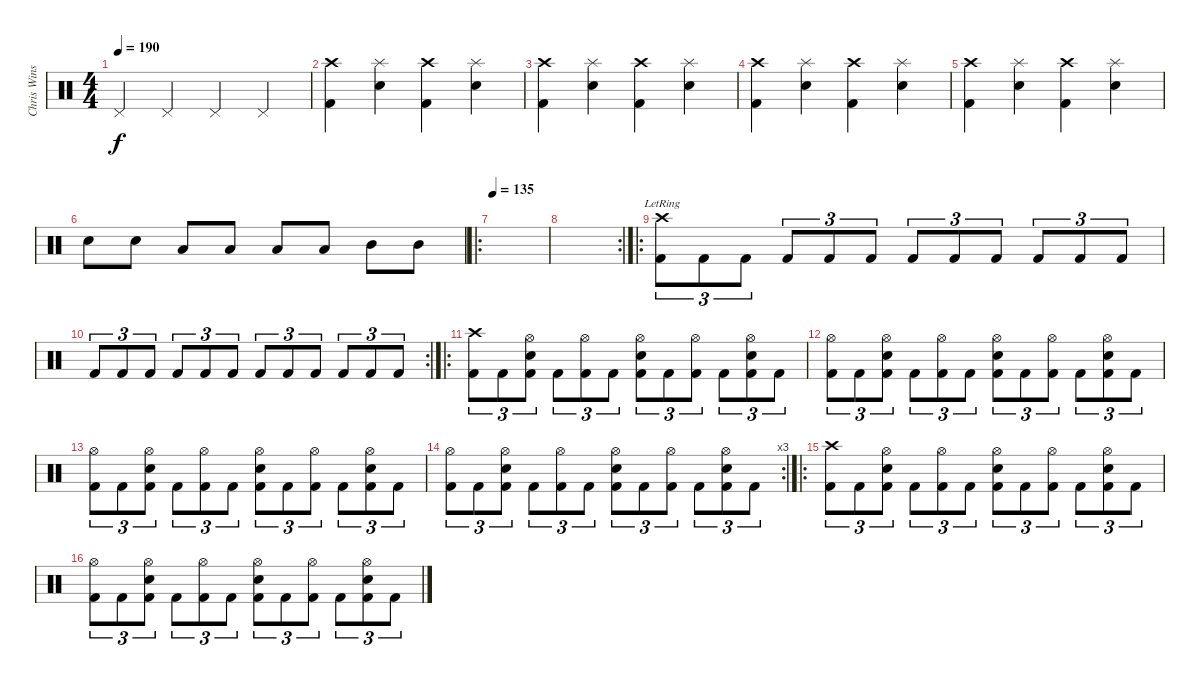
\track ("Chris Winship (Drums)" "Chris Wins") {instrument percussion}
\staff {score}
\articulation defaults
\ts (4 4)
\tempo 190
\clef neutral
\ks c "Pedal Hi-Hat (hit)".4{dy f} "Pedal Hi-Hat (hit)".4 "Pedal Hi-Hat (hit)".4 "Pedal Hi-Hat (hit)".4
|
("Crash high (hit)" "Kick (hit) 2").4 ("Splash (hit)" "Electric Snare (hit)").4 ("Crash high (hit)" "Kick (hit) 2").4 ("Splash (hit)" "Electric Snare (hit)").4 |
("Crash high (hit)" "Kick (hit) 2").4 ("Splash (hit)" "Electric Snare (hit)").4 ("Crash high (hit)" "Kick (hit) 2").4 ("Splash (hit)" "Electric Snare (hit)").4 |
("Crash high (hit)" "Kick (hit) 2").4 ("Splash (hit)" "Electric Snare (hit)").4 ("Crash high (hit)" "Kick (hit) 2").4 ("Splash (hit)" "Electric Snare (hit)").4 |
("Crash high (hit)" "Kick (hit) 2").4 ("Splash (hit)" "Electric Snare (hit)").4 ("Crash high (hit)" "Kick (hit) 2").4 ("Splash (hit)" "Electric Snare (hit)").4 |
"Electric Snare (hit)".8 "Electric Snare (hit)".8 "Low Tom (hit)".8 "Low Tom (hit)".8 "Low Floor Tom (hit)".8 "Low Floor Tom (hit)".8 "Mid Tom (hit)".8 "Mid Tom (hit)".8 |
\ro
\tempo 135
|
\rc 2
|
\ro
("Crash high (hit)"{lr} "Kick (hit) 2").8{tu (3 2)} "Kick (hit) 2".8{tu (3 2)} "Kick (hit) 2".8{tu (3 2)} "Kick (hit) 2".8{tu (3 2)} "Kick (hit) 2".8{tu (3 2)} "Kick (hit) 2".8{tu (3 2)} "Kick (hit) 2".8{tu (3 2)} "Kick (hit) 2".8{tu (3 2)} "Kick (hit) 2".8{tu (3 2)} "Kick (hit) 2".8{tu (3 2)} "Kick (hit) 2".8{tu (3 2)} "Kick (hit) 2".8{tu (3 2)} |
\rc 2 "Kick (hit) 2".8{tu (3 2)} "Kick (hit) 2".8{tu (3 2)} "Kick (hit) 2".8{tu (3 2)} "Kick (hit) 2".8{tu (3 2)} "Kick (hit) 2".8{tu (3 2)} "Kick (hit) 2".8{tu (3 2)} "Kick (hit) 2".8{tu (3 2)} "Kick (hit) 2".8{tu (3 2)} "Kick (hit) 2".8{tu (3 2)} "Kick (hit) 2".8{tu (3 2)} "Kick (hit) 2".8{tu (3 2)} "Kick (hit) 2".8{tu (3 2)}
|
\ro
("Crash high (hit)" "Kick (hit) 2").8{tu (3 2)} "Kick (hit) 2".8{tu (3 2)} ("Hi-Hat (open)" "Electric Snare (hit)" "Kick (hit) 2").8{tu (3 2)} "Kick (hit) 2".8{tu (3 2)} ("Hi-Hat (open)" "Kick (hit) 2").8{tu (3 2)} "Kick (hit) 2".8{tu (3 2)} ("Hi-Hat (open)" "Electric Snare (hit)" "Kick (hit) 2").8{tu (3 2)} "Kick (hit) 2".8{tu (3 2)} ("Hi-Hat (open)" "Kick (hit) 2").8{tu (3 2)} "Kick (hit) 2".8{tu (3 2)} ("Hi-Hat (open)" "Electric Snare (hit)" "Kick (hit) 2").8{tu (3 2)} "Kick (hit) 2".8{tu (3 2)} |
("Hi-Hat (open)" "Kick (hit) 2").8{tu (3 2)} "Kick (hit) 2".8{tu (3 2)} ("Hi-Hat (open)" "Electric Snare (hit)" "Kick (hit) 2").8{tu (3 2)} "Kick (hit) 2".8{tu (3 2)} ("Hi-Hat (open)" "Kick (hit) 2").8{tu (3 2)} "Kick (hit) 2".8{tu (3 2)} ("Hi-Hat (open)" "Electric Snare (hit)" "Kick (hit) 2").8{tu (3 2)} "Kick (hit) 2".8{tu (3 2)} ("Hi-Hat (open)" "Kick (hit) 2").8{tu (3 2)} "Kick (hit) 2".8{tu (3 2)} ("Hi-Hat (open)" "Electric Snare (hit)" "Kick (hit) 2").8{tu (3 2)} "Kick (hit) 2".8{tu (3 2)} |
("Hi-Hat (open)" "Kick (hit) 2").8{tu (3 2)} "Kick (hit) 2".8{tu (3 2)} ("Hi-Hat (open)" "Electric Snare (hit)" "Kick (hit) 2").8{tu (3 2)} "Kick (hit) 2".8{tu (3 2)} ("Hi-Hat (open)" "Kick (hit) 2").8{tu (3 2)} "Kick (hit) 2".8{tu (3 2)} ("Hi-Hat (open)" "Electric Snare (hit)" "Kick (hit) 2").8{tu (3 2)} "Kick (hit) 2".8{tu (3 2)} ("Hi-Hat (open)" "Kick (hit) 2").8{tu (3 2)} "Kick (hit) 2".8{tu (3 2)} ("Hi-Hat (open)" "Electric Snare (hit)" "Kick (hit) 2").8{tu (3 2)} "Kick (hit) 2".8{tu (3 2)} |
\rc 3
("Hi-Hat (open)" "Kick (hit) 2").8{tu (3 2)} "Kick (hit) 2".8{tu (3 2)} ("Hi-Hat (open)" "Electric Snare (hit)" "Kick (hit) 2").8{tu (3 2)} "Kick (hit) 2".8{tu (3 2)} ("Hi-Hat (open)" "Kick (hit) 2").8{tu (3 2)} "Kick (hit) 2".8{tu (3 2)} ("Hi-Hat (open)" "Electric Snare (hit)" "Kick (hit) 2").8{tu (3 2)} "Kick (hit) 2".8{tu (3 2)} ("Hi-Hat (open)" "Kick (hit) 2").8{tu (3 2)} "Kick (hit) 2".8{tu (3 2)} ("Hi-Hat (open)" "Electric Snare (hit)" "Kick (hit) 2").8{tu (3 2)} "Kick (hit) 2".8{tu (3 2)} |
\ro
("Crash high (hit)" "Kick (hit) 2").8{tu (3 2)} "Kick (hit) 2".8{tu (3 2)} ("Hi-Hat (open)" "Electric Snare (hit)" "Kick (hit) 2").8{tu (3 2)} "Kick (hit) 2".8{tu (3 2)} ("Hi-Hat (open)" "Kick (hit) 2").8{tu (3 2)} "Kick (hit) 2".8{tu (3 2)} ("Hi-Hat (open)" "Electric Snare (hit)" "Kick (hit) 2").8{tu (3 2)} "Kick (hit) 2".8{tu (3 2)} ("Hi-Hat (open)" "Kick (hit) 2").8{tu (3 2)} "Kick (hit) 2".8{tu (3 2)} ("Hi-Hat (open)" "Electric Snare (hit)" "Kick (hit) 2").8{tu (3 2)} "Kick (hit) 2".8{tu (3 2)} |
("Hi-Hat (open)" "Kick (hit) 2").8{tu (3 2)} "Kick (hit) 2".8{tu (3 2)} ("Hi-Hat (open)" "Electric Snare (hit)" "Kick (hit) 2").8{tu (3 2)} "Kick (hit) 2".8{tu (3 2)} ("Hi-Hat (open)" "Kick (hit) 2").8{tu (3 2)} "Kick (hit) 2".8{tu (3 2)} ("Hi-Hat (open)" "Electric Snare (hit)" "Kick (hit) 2").8{tu (3 2)} "Kick (hit) 2".8{tu (3 2)} ("Hi-Hat (open)" "Kick (hit) 2").8{tu (3 2)} "Kick (hit) 2".8{tu (3 2)} ("Hi-Hat (open)" "Electric Snare (hit)" "Kick (hit) 2").8{tu (3 2)} "Kick (hit) 2".8{tu (3 2)}
